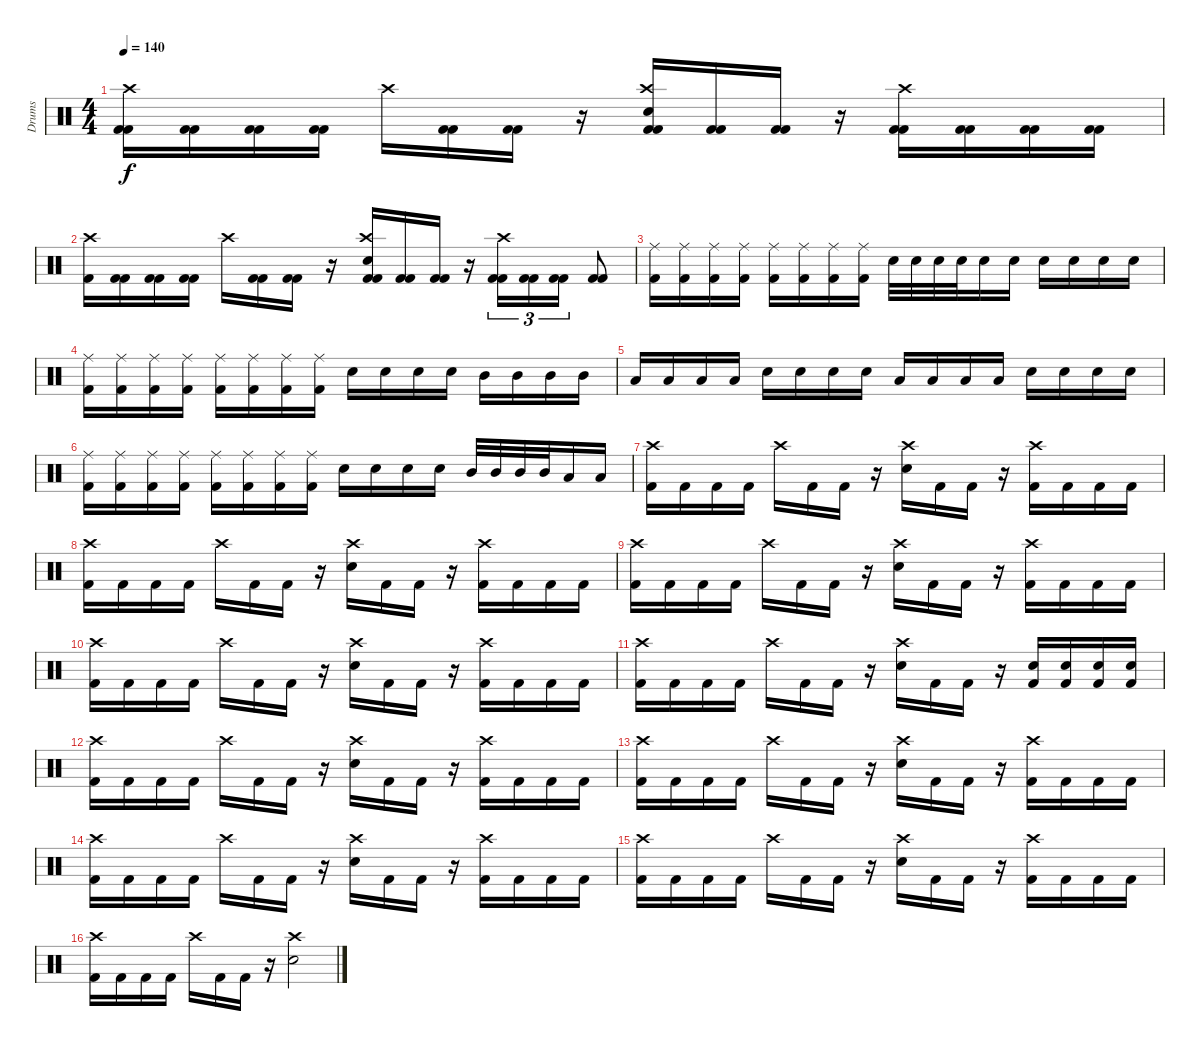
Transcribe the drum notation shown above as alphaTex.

\track ("Drums" "Drums") {instrument percussion}
\staff {score}
\articulation defaults
\ts (4 4)
\tempo 140
\clef neutral
\ks c
("Kick (hit) 2" "Crash high (hit)" "Kick (hit) 2").16{dy f} ("Kick (hit) 2" "Kick (hit) 2").16 ("Kick (hit) 2" "Kick (hit) 2").16 ("Kick (hit) 2" "Kick (hit) 2").16 "Crash high (hit)".16 ("Kick (hit) 2" "Kick (hit) 2").16 ("Kick (hit) 2" "Kick (hit) 2").16 r.16 ("Kick (hit) 2" "Crash high (hit)" "Electric Snare (hit)" "Kick (hit) 2").16 ("Kick (hit) 2" "Kick (hit) 2").16 ("Kick (hit) 2" "Kick (hit) 2").16 r.16 ("Kick (hit) 2" "Crash high (hit)" "Kick (hit) 2").16 ("Kick (hit) 2" "Kick (hit) 2").16 ("Kick (hit) 2" "Kick (hit) 2").16 ("Kick (hit) 2" "Kick (hit) 2").16 |
("Crash high (hit)" "Kick (hit) 2").16 ("Kick (hit) 2" "Kick (hit) 2").16 ("Kick (hit) 2" "Kick (hit) 2").16 ("Kick (hit) 2" "Kick (hit) 2").16 "Crash high (hit)".16 ("Kick (hit) 2" "Kick (hit) 2").16 ("Kick (hit) 2" "Kick (hit) 2").16 r.16 ("Kick (hit) 2" "Crash high (hit)" "Electric Snare (hit)" "Kick (hit) 2").16 ("Kick (hit) 2" "Kick (hit) 2").16 ("Kick (hit) 2" "Kick (hit) 2").16 r.16 ("Kick (hit) 2" "Crash high (hit)" "Kick (hit) 2").16{tu (3 2)} ("Kick (hit) 2" "Kick (hit) 2").16{tu (3 2)} ("Kick (hit) 2" "Kick (hit) 2").16{tu (3 2)} ("Kick (hit) 2" "Kick (hit) 2").8 |
("Ride (middle)" "Kick (hit) 2").16 ("Ride (middle)" "Kick (hit) 2").16 ("Ride (middle)" "Kick (hit) 2").16 ("Ride (middle)" "Kick (hit) 2").16 ("Ride (middle)" "Kick (hit) 2").16 ("Ride (middle)" "Kick (hit) 2").16 ("Ride (middle)" "Kick (hit) 2").16 ("Ride (middle)" "Kick (hit) 2").16 "Electric Snare (hit)".32 "Electric Snare (hit)".32 "Electric Snare (hit)".32 "Electric Snare (hit)".32 "Electric Snare (hit)".16 "Electric Snare (hit)".16 "Electric Snare (hit)".16 "Electric Snare (hit)".16 "Electric Snare (hit)".16 "Electric Snare (hit)".16 |
("Ride (middle)" "Kick (hit) 2").16 ("Ride (middle)" "Kick (hit) 2").16 ("Ride (middle)" "Kick (hit) 2").16 ("Ride (middle)" "Kick (hit) 2").16 ("Ride (middle)" "Kick (hit) 2").16 ("Ride (middle)" "Kick (hit) 2").16 ("Ride (middle)" "Kick (hit) 2").16 ("Ride (middle)" "Kick (hit) 2").16 "Electric Snare (hit)".16 "Electric Snare (hit)".16 "Electric Snare (hit)".16 "Electric Snare (hit)".16 "Mid Tom (hit)".16 "Mid Tom (hit)".16 "Mid Tom (hit)".16 "Mid Tom (hit)".16 |
"Low Tom (hit)".16 "Low Tom (hit)".16 "Low Tom (hit)".16 "Low Tom (hit)".16 "Electric Snare (hit)".16 "Electric Snare (hit)".16 "Electric Snare (hit)".16 "Electric Snare (hit)".16 "Low Tom (hit)".16 "Low Tom (hit)".16 "Low Tom (hit)".16 "Low Tom (hit)".16 "Electric Snare (hit)".16 "Electric Snare (hit)".16 "Electric Snare (hit)".16 "Electric Snare (hit)".16 |
("Ride (middle)" "Kick (hit) 2").16 ("Ride (middle)" "Kick (hit) 2").16 ("Ride (middle)" "Kick (hit) 2").16 ("Ride (middle)" "Kick (hit) 2").16 ("Ride (middle)" "Kick (hit) 2").16 ("Ride (middle)" "Kick (hit) 2").16 ("Ride (middle)" "Kick (hit) 2").16 ("Ride (middle)" "Kick (hit) 2").16 "Electric Snare (hit)".16 "Electric Snare (hit)".16 "Electric Snare (hit)".16 "Electric Snare (hit)".16 "Mid Tom (hit)".32 "Mid Tom (hit)".32 "Mid Tom (hit)".32 "Mid Tom (hit)".32 "Low Tom (hit)".16 "Low Tom (hit)".16 |
("Crash high (hit)" "Kick (hit) 2").16 "Kick (hit) 2".16 "Kick (hit) 2".16 "Kick (hit) 2".16 "Crash high (hit)".16 "Kick (hit) 2".16 "Kick (hit) 2".16 r.16 ("Crash high (hit)" "Electric Snare (hit)").16 "Kick (hit) 2".16 "Kick (hit) 2".16 r.16 ("Crash high (hit)" "Kick (hit) 2").16 "Kick (hit) 2".16 "Kick (hit) 2".16 "Kick (hit) 2".16 |
("Crash high (hit)" "Kick (hit) 2").16 "Kick (hit) 2".16 "Kick (hit) 2".16 "Kick (hit) 2".16 "Crash high (hit)".16 "Kick (hit) 2".16 "Kick (hit) 2".16 r.16 ("Crash high (hit)" "Electric Snare (hit)").16 "Kick (hit) 2".16 "Kick (hit) 2".16 r.16 ("Crash high (hit)" "Kick (hit) 2").16 "Kick (hit) 2".16 "Kick (hit) 2".16 "Kick (hit) 2".16 |
("Crash high (hit)" "Kick (hit) 2").16 "Kick (hit) 2".16 "Kick (hit) 2".16 "Kick (hit) 2".16 "Crash high (hit)".16 "Kick (hit) 2".16 "Kick (hit) 2".16 r.16 ("Crash high (hit)" "Electric Snare (hit)").16 "Kick (hit) 2".16 "Kick (hit) 2".16 r.16 ("Crash high (hit)" "Kick (hit) 2").16 "Kick (hit) 2".16 "Kick (hit) 2".16 "Kick (hit) 2".16 |
("Crash high (hit)" "Kick (hit) 2").16 "Kick (hit) 2".16 "Kick (hit) 2".16 "Kick (hit) 2".16 "Crash high (hit)".16 "Kick (hit) 2".16 "Kick (hit) 2".16 r.16 ("Crash high (hit)" "Electric Snare (hit)").16 "Kick (hit) 2".16 "Kick (hit) 2".16 r.16 ("Crash high (hit)" "Kick (hit) 2").16 "Kick (hit) 2".16 "Kick (hit) 2".16 "Kick (hit) 2".16 |
("Crash high (hit)" "Kick (hit) 2").16 "Kick (hit) 2".16 "Kick (hit) 2".16 "Kick (hit) 2".16 "Crash high (hit)".16 "Kick (hit) 2".16 "Kick (hit) 2".16 r.16 ("Crash high (hit)" "Electric Snare (hit)").16 "Kick (hit) 2".16 "Kick (hit) 2".16 r.16 ("Electric Snare (hit)" "Kick (hit) 2").16 ("Electric Snare (hit)" "Kick (hit) 2").16 ("Electric Snare (hit)" "Kick (hit) 2").16 ("Electric Snare (hit)" "Kick (hit) 2").16 |
("Crash high (hit)" "Kick (hit) 2").16 "Kick (hit) 2".16 "Kick (hit) 2".16 "Kick (hit) 2".16 "Crash high (hit)".16 "Kick (hit) 2".16 "Kick (hit) 2".16 r.16 ("Crash high (hit)" "Electric Snare (hit)").16 "Kick (hit) 2".16 "Kick (hit) 2".16 r.16 ("Crash high (hit)" "Kick (hit) 2").16 "Kick (hit) 2".16 "Kick (hit) 2".16 "Kick (hit) 2".16 |
("Crash high (hit)" "Kick (hit) 2").16 "Kick (hit) 2".16 "Kick (hit) 2".16 "Kick (hit) 2".16 "Crash high (hit)".16 "Kick (hit) 2".16 "Kick (hit) 2".16 r.16 ("Crash high (hit)" "Electric Snare (hit)").16 "Kick (hit) 2".16 "Kick (hit) 2".16 r.16 ("Crash high (hit)" "Kick (hit) 2").16 "Kick (hit) 2".16 "Kick (hit) 2".16 "Kick (hit) 2".16 |
("Crash high (hit)" "Kick (hit) 2").16 "Kick (hit) 2".16 "Kick (hit) 2".16 "Kick (hit) 2".16 "Crash high (hit)".16 "Kick (hit) 2".16 "Kick (hit) 2".16 r.16 ("Crash high (hit)" "Electric Snare (hit)").16 "Kick (hit) 2".16 "Kick (hit) 2".16 r.16 ("Crash high (hit)" "Kick (hit) 2").16 "Kick (hit) 2".16 "Kick (hit) 2".16 "Kick (hit) 2".16 |
("Crash high (hit)" "Kick (hit) 2").16 "Kick (hit) 2".16 "Kick (hit) 2".16 "Kick (hit) 2".16 "Crash high (hit)".16 "Kick (hit) 2".16 "Kick (hit) 2".16 r.16 ("Crash high (hit)" "Electric Snare (hit)").16 "Kick (hit) 2".16 "Kick (hit) 2".16 r.16 ("Crash high (hit)" "Kick (hit) 2").16 "Kick (hit) 2".16 "Kick (hit) 2".16 "Kick (hit) 2".16 |
("Crash high (hit)" "Kick (hit) 2").16 "Kick (hit) 2".16 "Kick (hit) 2".16 "Kick (hit) 2".16 "Crash high (hit)".16 "Kick (hit) 2".16 "Kick (hit) 2".16 r.16 ("Crash high (hit)" "Electric Snare (hit)").2
